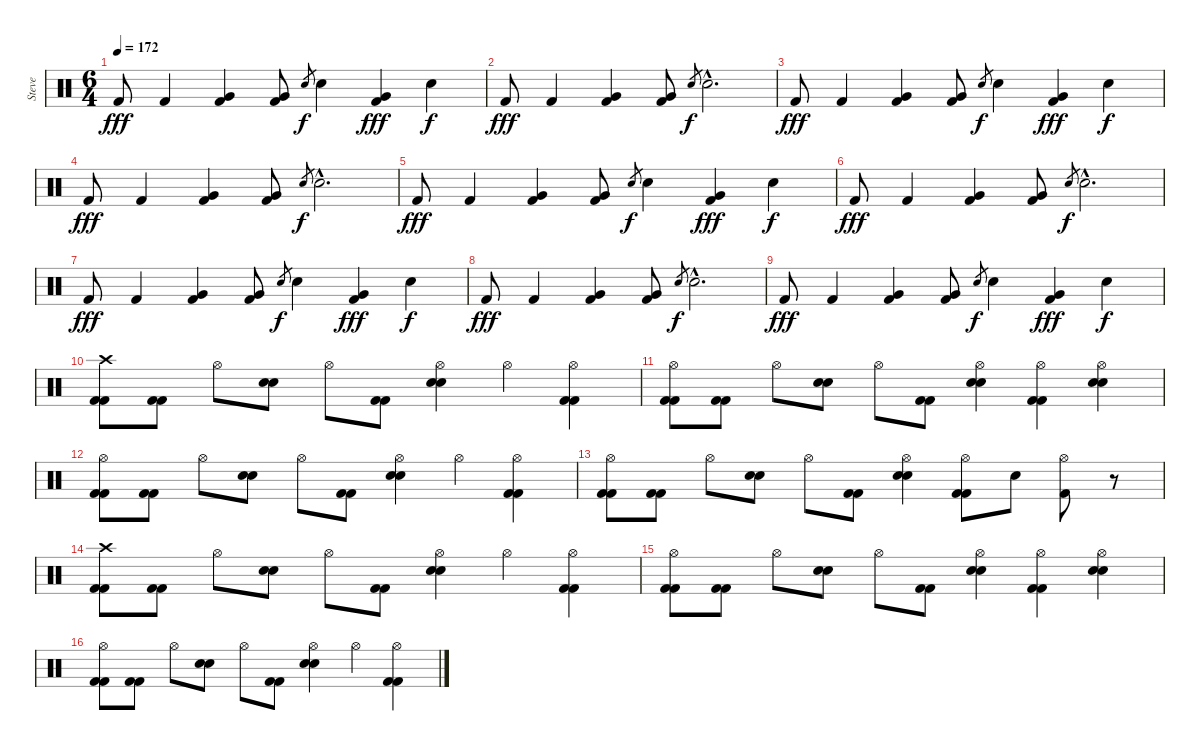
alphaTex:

\track ("Steve" "Steve") {instrument percussion}
\staff {score}
\articulation defaults
\ts (6 4)
\tempo 172
\clef neutral
\ks c "Kick (hit) 2".8{dy fff} "Kick (hit) 2".4
("Very Low Tom (hit)" "Kick (hit) 2").4 ("Very Low Tom (hit)" "Kick (hit) 2").8 "Electric Snare (hit)".8{gr dy f} "Electric Snare (hit)".4 ("Very Low Tom (hit)" "Kick (hit) 2").4{dy fff} "Electric Snare (hit)".4{dy f} |
"Kick (hit) 2".8{dy fff} "Kick (hit) 2".4 ("Very Low Tom (hit)" "Kick (hit) 2").4 ("Very Low Tom (hit)" "Kick (hit) 2").8 "Electric Snare (hit)".8{gr dy f} "Electric Snare (hit)"{hac}.2{d} |
"Kick (hit) 2".8{dy fff} "Kick (hit) 2".4 ("Very Low Tom (hit)" "Kick (hit) 2").4 ("Very Low Tom (hit)" "Kick (hit) 2").8 "Electric Snare (hit)".8{gr dy f} "Electric Snare (hit)".4 ("Very Low Tom (hit)" "Kick (hit) 2").4{dy fff} "Electric Snare (hit)".4{dy f} |
"Kick (hit) 2".8{dy fff} "Kick (hit) 2".4 ("Very Low Tom (hit)" "Kick (hit) 2").4 ("Very Low Tom (hit)" "Kick (hit) 2").8 "Electric Snare (hit)".8{gr dy f} "Electric Snare (hit)"{hac}.2{d} |
"Kick (hit) 2".8{dy fff} "Kick (hit) 2".4 ("Very Low Tom (hit)" "Kick (hit) 2").4 ("Very Low Tom (hit)" "Kick (hit) 2").8 "Electric Snare (hit)".8{gr dy f} "Electric Snare (hit)".4 ("Very Low Tom (hit)" "Kick (hit) 2").4{dy fff} "Electric Snare (hit)".4{dy f} |
"Kick (hit) 2".8{dy fff} "Kick (hit) 2".4 ("Very Low Tom (hit)" "Kick (hit) 2").4 ("Very Low Tom (hit)" "Kick (hit) 2").8 "Electric Snare (hit)".8{gr dy f} "Electric Snare (hit)"{hac}.2{d} |
"Kick (hit) 2".8{dy fff} "Kick (hit) 2".4 ("Very Low Tom (hit)" "Kick (hit) 2").4 ("Very Low Tom (hit)" "Kick (hit) 2").8 "Electric Snare (hit)".8{gr dy f} "Electric Snare (hit)".4 ("Very Low Tom (hit)" "Kick (hit) 2").4{dy fff} "Electric Snare (hit)".4{dy f} |
"Kick (hit) 2".8{dy fff} "Kick (hit) 2".4 ("Very Low Tom (hit)" "Kick (hit) 2").4 ("Very Low Tom (hit)" "Kick (hit) 2").8 "Electric Snare (hit)".8{gr dy f} "Electric Snare (hit)"{hac}.2{d} |
"Kick (hit) 2".8{dy fff} "Kick (hit) 2".4 ("Very Low Tom (hit)" "Kick (hit) 2").4 ("Very Low Tom (hit)" "Kick (hit) 2").8 "Electric Snare (hit)".8{gr dy f} "Electric Snare (hit)".4 ("Very Low Tom (hit)" "Kick (hit) 2").4{dy fff} "Electric Snare (hit)".4{dy f} |
("Crash high (hit)" "Kick (hit) 2" "Kick (hit) 2").8{volume 16} ("Kick (hit) 2" "Kick (hit) 2").8 "Hi-Hat (open)".8 ("Electric Snare (hit)" "Electric Snare (hit)").8 "Hi-Hat (open)".8 ("Kick (hit) 2" "Kick (hit) 2").8 ("Hi-Hat (open)" "Electric Snare (hit)" "Electric Snare (hit)").4 "Hi-Hat (open)".4 ("Hi-Hat (open)" "Kick (hit) 2" "Kick (hit) 2").4 |
("Hi-Hat (open)" "Kick (hit) 2" "Kick (hit) 2").8 ("Kick (hit) 2" "Kick (hit) 2").8 "Hi-Hat (open)".8 ("Electric Snare (hit)" "Electric Snare (hit)").8 "Hi-Hat (open)".8 ("Kick (hit) 2" "Kick (hit) 2").8 ("Hi-Hat (open)" "Electric Snare (hit)" "Electric Snare (hit)").4 ("Hi-Hat (open)" "Kick (hit) 2" "Kick (hit) 2").4 ("Hi-Hat (open)" "Electric Snare (hit)" "Electric Snare (hit)").4 |
("Hi-Hat (open)" "Kick (hit) 2" "Kick (hit) 2").8 ("Kick (hit) 2" "Kick (hit) 2").8 "Hi-Hat (open)".8 ("Electric Snare (hit)" "Electric Snare (hit)").8 "Hi-Hat (open)".8 ("Kick (hit) 2" "Kick (hit) 2").8 ("Hi-Hat (open)" "Electric Snare (hit)" "Electric Snare (hit)").4 "Hi-Hat (open)".4 ("Hi-Hat (open)" "Kick (hit) 2" "Kick (hit) 2").4 |
("Hi-Hat (open)" "Kick (hit) 2" "Kick (hit) 2").8 ("Kick (hit) 2" "Kick (hit) 2").8 "Hi-Hat (open)".8 ("Electric Snare (hit)" "Electric Snare (hit)").8 "Hi-Hat (open)".8 ("Kick (hit) 2" "Kick (hit) 2").8 ("Hi-Hat (open)" "Electric Snare (hit)" "Electric Snare (hit)").4 ("Hi-Hat (open)" "Kick (hit) 2" "Kick (hit) 2").8 "Electric Snare (hit)".8 ("Hi-Hat (open)" "Kick (hit) 2").8 r.8 |
("Crash high (hit)" "Kick (hit) 2" "Kick (hit) 2").8 ("Kick (hit) 2" "Kick (hit) 2").8 "Hi-Hat (open)".8 ("Electric Snare (hit)" "Electric Snare (hit)").8 "Hi-Hat (open)".8 ("Kick (hit) 2" "Kick (hit) 2").8 ("Hi-Hat (open)" "Electric Snare (hit)" "Electric Snare (hit)").4 "Hi-Hat (open)".4 ("Hi-Hat (open)" "Kick (hit) 2" "Kick (hit) 2").4 |
("Hi-Hat (open)" "Kick (hit) 2" "Kick (hit) 2").8 ("Kick (hit) 2" "Kick (hit) 2").8 "Hi-Hat (open)".8 ("Electric Snare (hit)" "Electric Snare (hit)").8 "Hi-Hat (open)".8 ("Kick (hit) 2" "Kick (hit) 2").8 ("Hi-Hat (open)" "Electric Snare (hit)" "Electric Snare (hit)").4 ("Hi-Hat (open)" "Kick (hit) 2" "Kick (hit) 2").4 ("Hi-Hat (open)" "Electric Snare (hit)" "Electric Snare (hit)").4 |
("Hi-Hat (open)" "Kick (hit) 2" "Kick (hit) 2").8 ("Kick (hit) 2" "Kick (hit) 2").8 "Hi-Hat (open)".8 ("Electric Snare (hit)" "Electric Snare (hit)").8 "Hi-Hat (open)".8 ("Kick (hit) 2" "Kick (hit) 2").8 ("Hi-Hat (open)" "Electric Snare (hit)" "Electric Snare (hit)").4 "Hi-Hat (open)".4 ("Hi-Hat (open)" "Kick (hit) 2" "Kick (hit) 2").4
